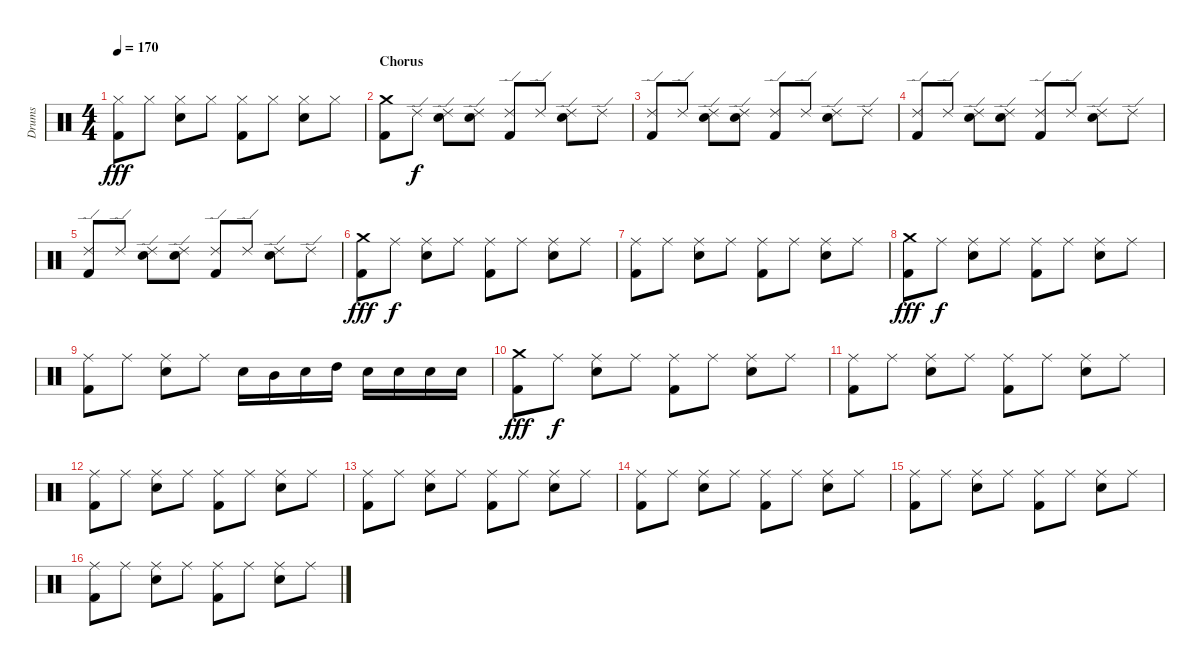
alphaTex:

\track ("Drums" "Drums") {instrument percussion}
\staff {score}
\articulation defaults
\ts (4 4)
\tempo 170
\clef neutral
\ks c
("Hi-Hat (closed)" "Kick (hit) 2").8{dy fff} "Hi-Hat (closed)".8 ("Hi-Hat (closed)" "Electric Snare (hit)").8 "Hi-Hat (closed)".8 ("Hi-Hat (closed)" "Kick (hit) 2").8 "Hi-Hat (closed)".8 ("Hi-Hat (closed)" "Electric Snare (hit)").8 "Hi-Hat (closed)".8 |
\section ("" "Chorus")
("Crash medium (hit)" "Kick (hit) 2").8 "Ride (edge) 2".8{dy f} ("Ride (edge) 2" "Electric Snare (hit)").8 ("Ride (edge) 2" "Electric Snare (hit)").8 ("Ride (edge) 2" "Kick (hit) 2").8 "Ride (edge) 2".8 ("Ride (edge) 2" "Electric Snare (hit)").8 "Ride (edge) 2".8 |
("Ride (edge) 2" "Kick (hit) 2").8 "Ride (edge) 2".8 ("Ride (edge) 2" "Electric Snare (hit)").8 ("Ride (edge) 2" "Electric Snare (hit)").8 ("Ride (edge) 2" "Kick (hit) 2").8 "Ride (edge) 2".8 ("Ride (edge) 2" "Electric Snare (hit)").8 "Ride (edge) 2".8 |
("Ride (edge) 2" "Kick (hit) 2").8 "Ride (edge) 2".8 ("Ride (edge) 2" "Electric Snare (hit)").8 ("Ride (edge) 2" "Electric Snare (hit)").8 ("Ride (edge) 2" "Kick (hit) 2").8 "Ride (edge) 2".8 ("Ride (edge) 2" "Electric Snare (hit)").8 "Ride (edge) 2".8 |
("Ride (edge) 2" "Kick (hit) 2").8 "Ride (edge) 2".8 ("Ride (edge) 2" "Electric Snare (hit)").8 ("Ride (edge) 2" "Electric Snare (hit)").8 ("Ride (edge) 2" "Kick (hit) 2").8 "Ride (edge) 2".8 ("Ride (edge) 2" "Electric Snare (hit)").8 "Ride (edge) 2".8 |
("Crash medium (hit)" "Kick (hit) 2").8{dy fff} "Ride (middle)".8{dy f} ("Ride (middle)" "Electric Snare (hit)").8 "Ride (middle)".8 ("Ride (middle)" "Kick (hit) 2").8 "Ride (middle)".8 ("Ride (middle)" "Electric Snare (hit)").8 "Ride (middle)".8 |
("Ride (middle)" "Kick (hit) 2").8 "Ride (middle)".8 ("Ride (middle)" "Electric Snare (hit)").8 "Ride (middle)".8 ("Ride (middle)" "Kick (hit) 2").8 "Ride (middle)".8 ("Ride (middle)" "Electric Snare (hit)").8 "Ride (middle)".8 |
("Crash medium (hit)" "Kick (hit) 2").8{dy fff} "Ride (middle)".8{dy f} ("Ride (middle)" "Electric Snare (hit)").8 "Ride (middle)".8 ("Ride (middle)" "Kick (hit) 2").8 "Ride (middle)".8 ("Ride (middle)" "Electric Snare (hit)").8 "Ride (middle)".8 |
("Ride (middle)" "Kick (hit) 2").8 "Ride (middle)".8 ("Ride (middle)" "Electric Snare (hit)").8 "Ride (middle)".8 "Electric Snare (hit)".16 "Mid Tom (hit)".16 "Electric Snare (hit)".16 "High Tom (hit)".16 "Electric Snare (hit)".16 "Electric Snare (hit)".16 "Electric Snare (hit)".16 "Electric Snare (hit)".16 |
("Crash medium (hit)" "Kick (hit) 2").8{dy fff} "Ride (middle)".8{dy f} ("Ride (middle)" "Electric Snare (hit)").8 "Ride (middle)".8 ("Ride (middle)" "Kick (hit) 2").8 "Ride (middle)".8 ("Ride (middle)" "Electric Snare (hit)").8 "Ride (middle)".8 |
("Ride (middle)" "Kick (hit) 2").8 "Ride (middle)".8 ("Ride (middle)" "Electric Snare (hit)").8 "Ride (middle)".8 ("Ride (middle)" "Kick (hit) 2").8 "Ride (middle)".8 ("Ride (middle)" "Electric Snare (hit)").8 "Ride (middle)".8 |
("Ride (middle)" "Kick (hit) 2").8 "Ride (middle)".8 ("Ride (middle)" "Electric Snare (hit)").8 "Ride (middle)".8 ("Ride (middle)" "Kick (hit) 2").8 "Ride (middle)".8 ("Ride (middle)" "Electric Snare (hit)").8 "Ride (middle)".8 |
("Ride (middle)" "Kick (hit) 2").8 "Ride (middle)".8 ("Ride (middle)" "Electric Snare (hit)").8 "Ride (middle)".8 ("Ride (middle)" "Kick (hit) 2").8 "Ride (middle)".8 ("Ride (middle)" "Electric Snare (hit)").8 "Ride (middle)".8 |
("Ride (middle)" "Kick (hit) 2").8 "Ride (middle)".8 ("Ride (middle)" "Electric Snare (hit)").8 "Ride (middle)".8 ("Ride (middle)" "Kick (hit) 2").8 "Ride (middle)".8 ("Ride (middle)" "Electric Snare (hit)").8 "Ride (middle)".8 |
("Ride (middle)" "Kick (hit) 2").8 "Ride (middle)".8 ("Ride (middle)" "Electric Snare (hit)").8 "Ride (middle)".8 ("Ride (middle)" "Kick (hit) 2").8 "Ride (middle)".8 ("Ride (middle)" "Electric Snare (hit)").8 "Ride (middle)".8 |
("Ride (middle)" "Kick (hit) 2").8 "Ride (middle)".8 ("Ride (middle)" "Electric Snare (hit)").8 "Ride (middle)".8 ("Ride (middle)" "Kick (hit) 2").8 "Ride (middle)".8 ("Ride (middle)" "Electric Snare (hit)").8 "Ride (middle)".8
